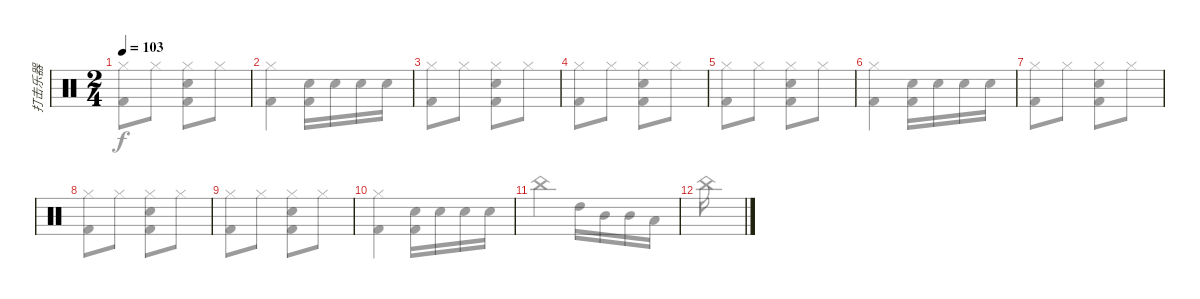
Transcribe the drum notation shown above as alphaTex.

\track ("打击乐器" "打击乐器") {instrument percussion bank 10}
\staff {score}
\articulation defaults
\voice
\ts (2 4)
\tempo 103
\clef neutral
\ks c
|
|
|
|
|
|
|
|
|
|
|
|
|
|
|
\voice
\clef neutral
\ks c
("Hi-Hat (closed)" "Kick (hit) 2").8{dy f} "Hi-Hat (closed)".8 ("Hi-Hat (closed)" "Electric Snare (hit)" "Kick (hit) 2").8 "Hi-Hat (closed)".8 |
("Hi-Hat (closed)" "Kick (hit) 2").4 ("Electric Snare (hit)" "Kick (hit) 2").16 "Electric Snare (hit)".16 "Electric Snare (hit)".16 "Electric Snare (hit)".16 |
("Hi-Hat (closed)" "Kick (hit) 2").8 "Hi-Hat (closed)".8 ("Hi-Hat (closed)" "Electric Snare (hit)" "Kick (hit) 2").8 "Hi-Hat (closed)".8 |
("Hi-Hat (closed)" "Kick (hit) 2").8 "Hi-Hat (closed)".8 ("Hi-Hat (closed)" "Electric Snare (hit)" "Kick (hit) 2").8 "Hi-Hat (closed)".8 |
("Hi-Hat (closed)" "Kick (hit) 2").8 "Hi-Hat (closed)".8 ("Hi-Hat (closed)" "Electric Snare (hit)" "Kick (hit) 2").8 "Hi-Hat (closed)".8 |
("Hi-Hat (closed)" "Kick (hit) 2").4 ("Electric Snare (hit)" "Kick (hit) 2").16 "Electric Snare (hit)".16 "Electric Snare (hit)".16 "Electric Snare (hit)".16 |
("Hi-Hat (closed)" "Kick (hit) 2").8 "Hi-Hat (closed)".8 ("Hi-Hat (closed)" "Electric Snare (hit)" "Kick (hit) 2").8 "Hi-Hat (closed)".8 |
("Hi-Hat (closed)" "Kick (hit) 2").8 "Hi-Hat (closed)".8 ("Hi-Hat (closed)" "Electric Snare (hit)" "Kick (hit) 2").8 "Hi-Hat (closed)".8 |
("Hi-Hat (closed)" "Kick (hit) 2").8 "Hi-Hat (closed)".8 ("Hi-Hat (closed)" "Electric Snare (hit)" "Kick (hit) 2").8 "Hi-Hat (closed)".8 |
("Hi-Hat (closed)" "Kick (hit) 2").4 ("Electric Snare (hit)" "Kick (hit) 2").16 "Electric Snare (hit)".16 "Electric Snare (hit)".16 "Electric Snare (hit)".16 |
"China (hit)".4 "High Tom (hit)".16 "Mid Tom (hit)".16 "Mid Tom (hit)".16 "Low Tom (hit)".16 |
"China (hit)".16 |
|
|
|
